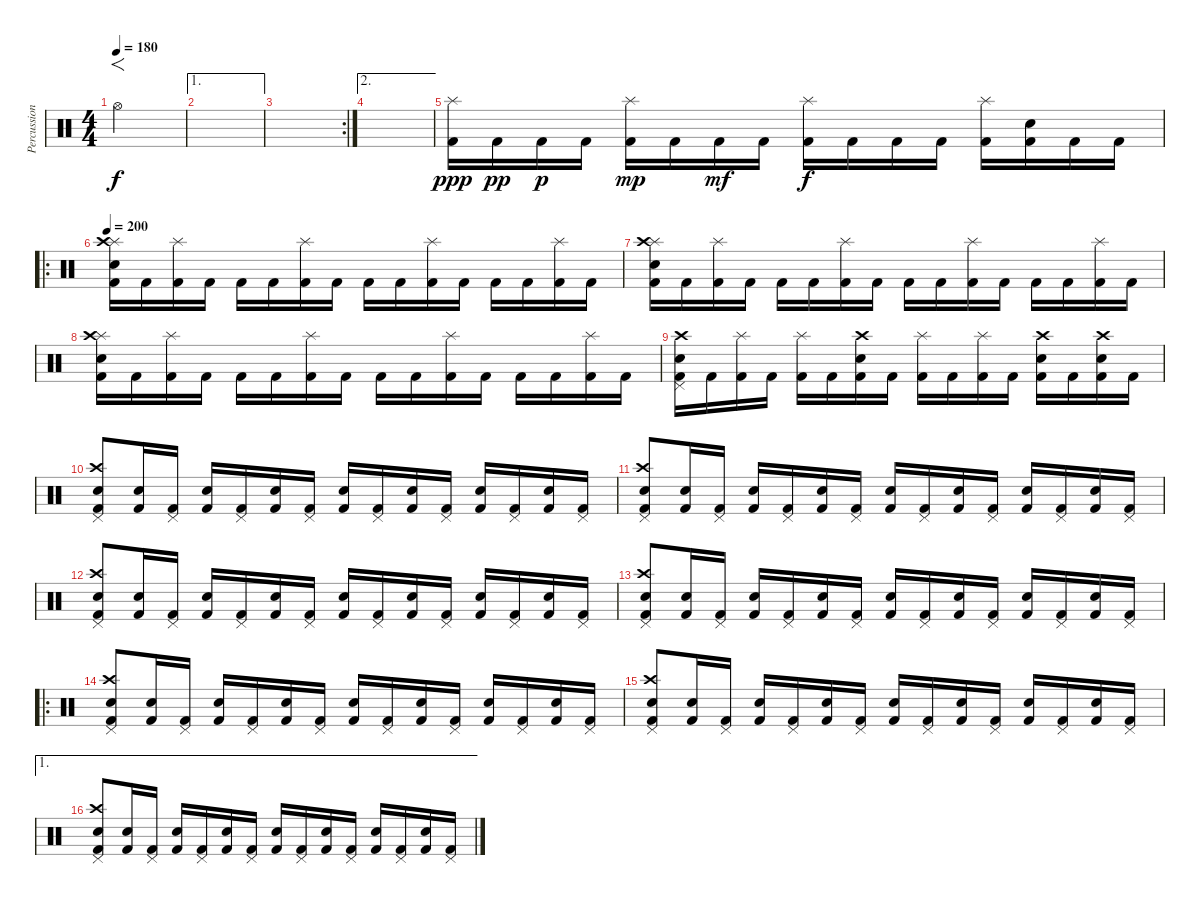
\track ("Percussion" "Percussion") {instrument percussion}
\staff {score}
\articulation defaults
\ts (4 4)
\tempo 180
\clef neutral
\ks c "Hi-Hat (open)".4{f dy f}
|
\ae 1
|
\rc 2
|
\ae 2
|
("Splash (hit)" "Kick (hit) 2").16{dy ppp} "Kick (hit) 2".16{dy pp} "Kick (hit) 2".16{dy p} "Kick (hit) 2".16 ("Splash (hit)" "Kick (hit) 2").16{dy mp} "Kick (hit) 2".16 "Kick (hit) 2".16{dy mf} "Kick (hit) 2".16 ("Splash (hit)" "Kick (hit) 2").16{dy f} "Kick (hit) 2".16 "Kick (hit) 2".16 "Kick (hit) 2".16 ("Splash (hit)" "Kick (hit) 2").16 ("Snare (hit) 2" "Kick (hit) 2").16 "Kick (hit) 2".16 "Kick (hit) 2".16 |
\ro
\tempo 200
("Splash (hit)" "Crash high (hit)" "Snare (hit) 2" "Kick (hit) 2").16 "Kick (hit) 2".16 ("Splash (hit)" "Kick (hit) 2").16 "Kick (hit) 2".16 "Kick (hit) 2".16 "Kick (hit) 2".16 ("Splash (hit)" "Kick (hit) 2").16 "Kick (hit) 2".16 "Kick (hit) 2".16 "Kick (hit) 2".16 ("Splash (hit)" "Kick (hit) 2").16 "Kick (hit) 2".16 "Kick (hit) 2".16 "Kick (hit) 2".16 ("Splash (hit)" "Kick (hit) 2").16 "Kick (hit) 2".16 |
("Splash (hit)" "Crash high (hit)" "Snare (hit) 2" "Kick (hit) 2").16 "Kick (hit) 2".16 ("Splash (hit)" "Kick (hit) 2").16 "Kick (hit) 2".16 "Kick (hit) 2".16 "Kick (hit) 2".16 ("Splash (hit)" "Kick (hit) 2").16 "Kick (hit) 2".16 "Kick (hit) 2".16 "Kick (hit) 2".16 ("Splash (hit)" "Kick (hit) 2").16 "Kick (hit) 2".16 "Kick (hit) 2".16 "Kick (hit) 2".16 ("Splash (hit)" "Kick (hit) 2").16 "Kick (hit) 2".16 |
("Splash (hit)" "Crash high (hit)" "Snare (hit) 2" "Kick (hit) 2").16 "Kick (hit) 2".16 ("Splash (hit)" "Kick (hit) 2").16 "Kick (hit) 2".16 "Kick (hit) 2".16 "Kick (hit) 2".16 ("Splash (hit)" "Kick (hit) 2").16 "Kick (hit) 2".16 "Kick (hit) 2".16 "Kick (hit) 2".16 ("Splash (hit)" "Kick (hit) 2").16 "Kick (hit) 2".16 "Kick (hit) 2".16 "Kick (hit) 2".16 ("Splash (hit)" "Kick (hit) 2").16 "Kick (hit) 2".16 |
("Pedal Hi-Hat (hit)" "Crash high (hit)" "Snare (hit) 2" "Kick (hit) 2").16 "Kick (hit) 2".16 ("Splash (hit)" "Kick (hit) 2").16 "Kick (hit) 2".16 ("Splash (hit)" "Kick (hit) 2").16 "Kick (hit) 2".16 ("Crash high (hit)" "Snare (hit) 2" "Kick (hit) 2").16 "Kick (hit) 2".16 ("Splash (hit)" "Kick (hit) 2").16 "Kick (hit) 2".16 ("Splash (hit)" "Kick (hit) 2").16 "Kick (hit) 2".16 ("Crash high (hit)" "Snare (hit) 2" "Kick (hit) 2").16 "Kick (hit) 2".16 ("Crash high (hit)" "Snare (hit) 2" "Kick (hit) 2").16 "Kick (hit) 2".16 |
("Pedal Hi-Hat (hit)" "Crash high (hit)" "Snare (hit) 2" "Kick (hit) 2").8 ("Snare (hit) 2" "Kick (hit) 2").16 ("Pedal Hi-Hat (hit)" "Kick (hit) 2").16 ("Snare (hit) 2" "Kick (hit) 2").16 ("Pedal Hi-Hat (hit)" "Kick (hit) 2").16 ("Snare (hit) 2" "Kick (hit) 2").16 ("Pedal Hi-Hat (hit)" "Kick (hit) 2").16 ("Snare (hit) 2" "Kick (hit) 2").16 ("Pedal Hi-Hat (hit)" "Kick (hit) 2").16 ("Snare (hit) 2" "Kick (hit) 2").16 ("Pedal Hi-Hat (hit)" "Kick (hit) 2").16 ("Snare (hit) 2" "Kick (hit) 2").16 ("Pedal Hi-Hat (hit)" "Kick (hit) 2").16 ("Snare (hit) 2" "Kick (hit) 2").16 ("Pedal Hi-Hat (hit)" "Kick (hit) 2").16 |
("Pedal Hi-Hat (hit)" "Crash high (hit)" "Snare (hit) 2" "Kick (hit) 2").8 ("Snare (hit) 2" "Kick (hit) 2").16 ("Pedal Hi-Hat (hit)" "Kick (hit) 2").16 ("Snare (hit) 2" "Kick (hit) 2").16 ("Pedal Hi-Hat (hit)" "Kick (hit) 2").16 ("Snare (hit) 2" "Kick (hit) 2").16 ("Pedal Hi-Hat (hit)" "Kick (hit) 2").16 ("Snare (hit) 2" "Kick (hit) 2").16 ("Pedal Hi-Hat (hit)" "Kick (hit) 2").16 ("Snare (hit) 2" "Kick (hit) 2").16 ("Pedal Hi-Hat (hit)" "Kick (hit) 2").16 ("Snare (hit) 2" "Kick (hit) 2").16 ("Pedal Hi-Hat (hit)" "Kick (hit) 2").16 ("Snare (hit) 2" "Kick (hit) 2").16 ("Pedal Hi-Hat (hit)" "Kick (hit) 2").16 |
("Pedal Hi-Hat (hit)" "Crash high (hit)" "Snare (hit) 2" "Kick (hit) 2").8 ("Snare (hit) 2" "Kick (hit) 2").16 ("Pedal Hi-Hat (hit)" "Kick (hit) 2").16 ("Snare (hit) 2" "Kick (hit) 2").16 ("Pedal Hi-Hat (hit)" "Kick (hit) 2").16 ("Snare (hit) 2" "Kick (hit) 2").16 ("Pedal Hi-Hat (hit)" "Kick (hit) 2").16 ("Snare (hit) 2" "Kick (hit) 2").16 ("Pedal Hi-Hat (hit)" "Kick (hit) 2").16 ("Snare (hit) 2" "Kick (hit) 2").16 ("Pedal Hi-Hat (hit)" "Kick (hit) 2").16 ("Snare (hit) 2" "Kick (hit) 2").16 ("Pedal Hi-Hat (hit)" "Kick (hit) 2").16 ("Snare (hit) 2" "Kick (hit) 2").16 ("Pedal Hi-Hat (hit)" "Kick (hit) 2").16 |
("Pedal Hi-Hat (hit)" "Crash high (hit)" "Snare (hit) 2" "Kick (hit) 2").8 ("Snare (hit) 2" "Kick (hit) 2").16 ("Pedal Hi-Hat (hit)" "Kick (hit) 2").16 ("Snare (hit) 2" "Kick (hit) 2").16 ("Pedal Hi-Hat (hit)" "Kick (hit) 2").16 ("Snare (hit) 2" "Kick (hit) 2").16 ("Pedal Hi-Hat (hit)" "Kick (hit) 2").16 ("Snare (hit) 2" "Kick (hit) 2").16 ("Pedal Hi-Hat (hit)" "Kick (hit) 2").16 ("Snare (hit) 2" "Kick (hit) 2").16 ("Pedal Hi-Hat (hit)" "Kick (hit) 2").16 ("Snare (hit) 2" "Kick (hit) 2").16 ("Pedal Hi-Hat (hit)" "Kick (hit) 2").16 ("Snare (hit) 2" "Kick (hit) 2").16 ("Pedal Hi-Hat (hit)" "Kick (hit) 2").16 |
\ro
("Pedal Hi-Hat (hit)" "Crash high (hit)" "Snare (hit) 2" "Kick (hit) 2").8 ("Snare (hit) 2" "Kick (hit) 2").16 ("Pedal Hi-Hat (hit)" "Kick (hit) 2").16 ("Snare (hit) 2" "Kick (hit) 2").16 ("Pedal Hi-Hat (hit)" "Kick (hit) 2").16 ("Snare (hit) 2" "Kick (hit) 2").16 ("Pedal Hi-Hat (hit)" "Kick (hit) 2").16 ("Snare (hit) 2" "Kick (hit) 2").16 ("Pedal Hi-Hat (hit)" "Kick (hit) 2").16 ("Snare (hit) 2" "Kick (hit) 2").16 ("Pedal Hi-Hat (hit)" "Kick (hit) 2").16 ("Snare (hit) 2" "Kick (hit) 2").16 ("Pedal Hi-Hat (hit)" "Kick (hit) 2").16 ("Snare (hit) 2" "Kick (hit) 2").16 ("Pedal Hi-Hat (hit)" "Kick (hit) 2").16 |
("Pedal Hi-Hat (hit)" "Crash high (hit)" "Snare (hit) 2" "Kick (hit) 2").8 ("Snare (hit) 2" "Kick (hit) 2").16 ("Pedal Hi-Hat (hit)" "Kick (hit) 2").16 ("Snare (hit) 2" "Kick (hit) 2").16 ("Pedal Hi-Hat (hit)" "Kick (hit) 2").16 ("Snare (hit) 2" "Kick (hit) 2").16 ("Pedal Hi-Hat (hit)" "Kick (hit) 2").16 ("Snare (hit) 2" "Kick (hit) 2").16 ("Pedal Hi-Hat (hit)" "Kick (hit) 2").16 ("Snare (hit) 2" "Kick (hit) 2").16 ("Pedal Hi-Hat (hit)" "Kick (hit) 2").16 ("Snare (hit) 2" "Kick (hit) 2").16 ("Pedal Hi-Hat (hit)" "Kick (hit) 2").16 ("Snare (hit) 2" "Kick (hit) 2").16 ("Pedal Hi-Hat (hit)" "Kick (hit) 2").16 |
\ae 1
("Pedal Hi-Hat (hit)" "Crash high (hit)" "Snare (hit) 2" "Kick (hit) 2").8 ("Snare (hit) 2" "Kick (hit) 2").16 ("Pedal Hi-Hat (hit)" "Kick (hit) 2").16 ("Snare (hit) 2" "Kick (hit) 2").16 ("Pedal Hi-Hat (hit)" "Kick (hit) 2").16 ("Snare (hit) 2" "Kick (hit) 2").16 ("Pedal Hi-Hat (hit)" "Kick (hit) 2").16 ("Snare (hit) 2" "Kick (hit) 2").16 ("Pedal Hi-Hat (hit)" "Kick (hit) 2").16 ("Snare (hit) 2" "Kick (hit) 2").16 ("Pedal Hi-Hat (hit)" "Kick (hit) 2").16 ("Snare (hit) 2" "Kick (hit) 2").16 ("Pedal Hi-Hat (hit)" "Kick (hit) 2").16 ("Snare (hit) 2" "Kick (hit) 2").16 ("Pedal Hi-Hat (hit)" "Kick (hit) 2").16
